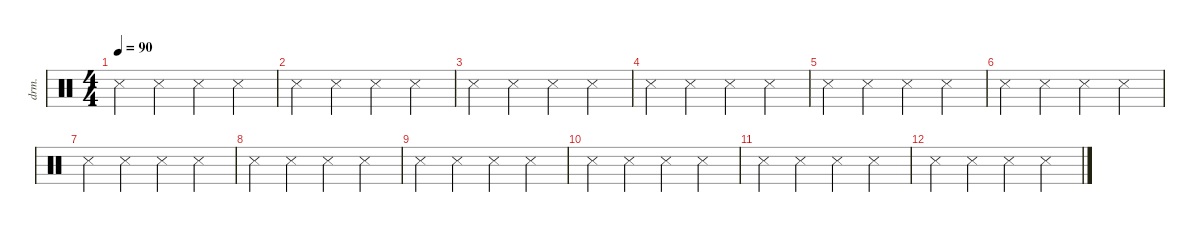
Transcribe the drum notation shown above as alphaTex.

\defaultSystemsLayout 4
\hideDynamics
\bracketExtendMode nobrackets
\otherSystemsTrackNameOrientation horizontal
\track ("Drumkit" "drm.") {instrument percussion}
\staff {score}
\articulation defaults
\ts (4 4)
\tempo 90
\clef neutral
\ks c "Metronome (hit)".4{dy mf beam Down} "Metronome (hit)".4{beam Down} "Metronome (hit)".4{beam Down} "Metronome (hit)".4{beam Down}
|
"Metronome (hit)".4{beam Down} "Metronome (hit)".4{beam Down} "Metronome (hit)".4{beam Down} "Metronome (hit)".4{beam Down} |
"Metronome (hit)".4{beam Down} "Metronome (hit)".4{beam Down} "Metronome (hit)".4{beam Down} "Metronome (hit)".4{beam Down} |
"Metronome (hit)".4{beam Down} "Metronome (hit)".4{beam Down} "Metronome (hit)".4{beam Down} "Metronome (hit)".4{beam Down} |
"Metronome (hit)".4{beam Down} "Metronome (hit)".4{beam Down} "Metronome (hit)".4{beam Down} "Metronome (hit)".4{beam Down} |
"Metronome (hit)".4{beam Down} "Metronome (hit)".4{beam Down} "Metronome (hit)".4{beam Down} "Metronome (hit)".4{beam Down} |
"Metronome (hit)".4{beam Down} "Metronome (hit)".4{beam Down} "Metronome (hit)".4{beam Down} "Metronome (hit)".4{beam Down} |
"Metronome (hit)".4{beam Down} "Metronome (hit)".4{beam Down} "Metronome (hit)".4{beam Down} "Metronome (hit)".4{beam Down} |
"Metronome (hit)".4{beam Down} "Metronome (hit)".4{beam Down} "Metronome (hit)".4{beam Down} "Metronome (hit)".4{beam Down} |
"Metronome (hit)".4{beam Down} "Metronome (hit)".4{beam Down} "Metronome (hit)".4{beam Down} "Metronome (hit)".4{beam Down} |
"Metronome (hit)".4{beam Down} "Metronome (hit)".4{beam Down} "Metronome (hit)".4{beam Down} "Metronome (hit)".4{beam Down} |
"Metronome (hit)".4{beam Down} "Metronome (hit)".4{beam Down} "Metronome (hit)".4{beam Down} "Metronome (hit)".4{beam Down}
